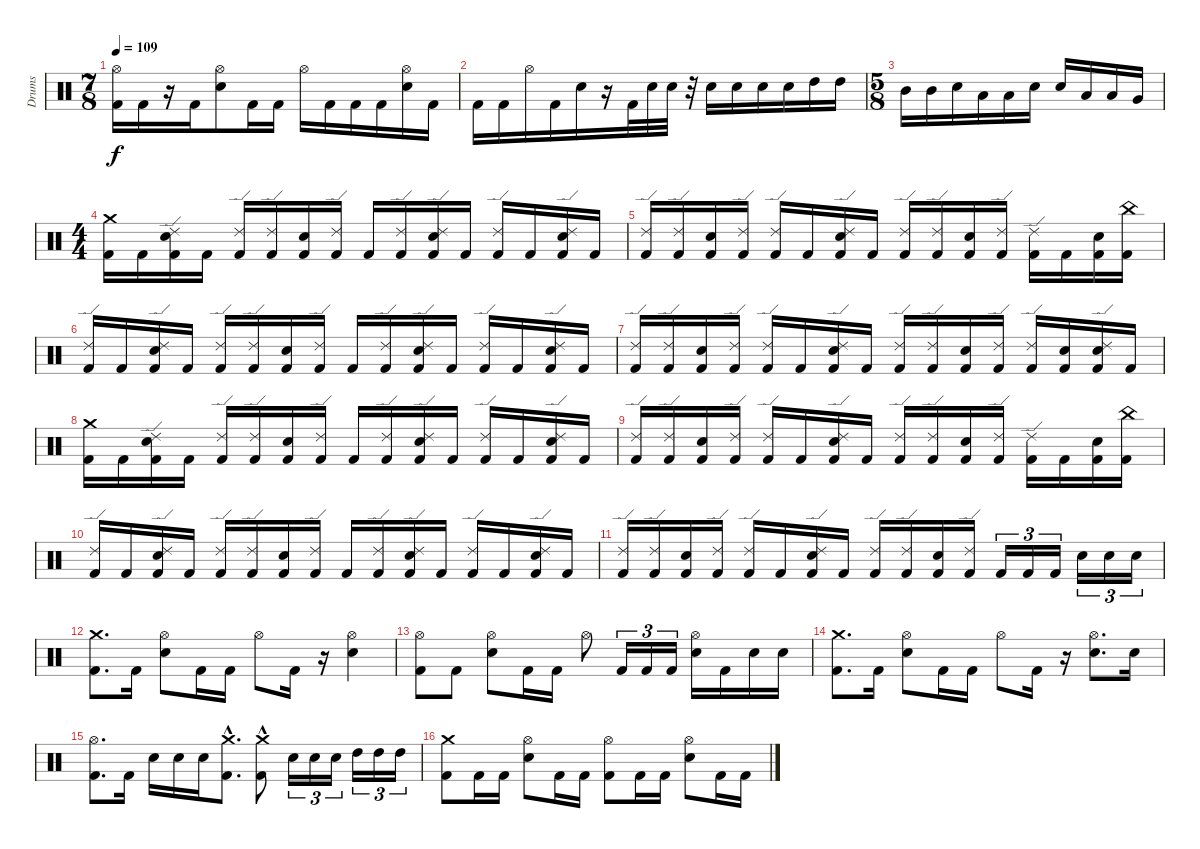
\track ("Drums" "Drums") {instrument percussion}
\staff {score}
\articulation defaults
\ts (7 8)
\tempo 109
\clef neutral
\ks c
("Hi-Hat (open)" "Kick (hit) 2").16{dy f} "Kick (hit) 2".16 r.16 "Kick (hit) 2".16 ("Hi-Hat (open)" "Electric Snare (hit)").8 "Kick (hit) 2".16 "Kick (hit) 2".16 "Hi-Hat (open)".16 "Kick (hit) 2".16 "Kick (hit) 2".16 "Kick (hit) 2".16 ("Hi-Hat (open)" "Electric Snare (hit)").16 "Kick (hit) 2".16 |
"Kick (hit) 2".16 "Kick (hit) 2".16 "Hi-Hat (open)".16 "Kick (hit) 2".16 "Electric Snare (hit)".16 r.16 "Kick (hit) 2".32 "Electric Snare (hit)".32 "Electric Snare (hit)".32 r.32 "Electric Snare (hit)".16 "Electric Snare (hit)".16 "Electric Snare (hit)".16 "Electric Snare (hit)".16 "High Tom (hit)".16 "High Tom (hit)".16 |
\ts (5 8)
"Mid Tom (hit)".16 "Mid Tom (hit)".16 "Electric Snare (hit)".16 "Low Tom (hit)".16 "Low Tom (hit)".16 "Electric Snare (hit)".16 "Electric Snare (hit)".16 "Low Tom (hit)".16 "Low Tom (hit)".16 "Very Low Tom (hit)".16 |
\ts (4 4)
("Crash medium (hit)" "Kick (hit) 2").16 "Kick (hit) 2".16 ("Ride (edge) 2" "Electric Snare (hit)" "Kick (hit) 2").16 "Kick (hit) 2".16 ("Ride (edge) 2" "Kick (hit) 2").16 ("Ride (edge) 2" "Kick (hit) 2").16 ("Electric Snare (hit)" "Kick (hit) 2").16 ("Ride (edge) 2" "Kick (hit) 2").16 "Kick (hit) 2".16 ("Ride (edge) 2" "Kick (hit) 2").16 ("Ride (edge) 2" "Electric Snare (hit)" "Kick (hit) 2").16 "Kick (hit) 2".16 ("Ride (edge) 2" "Kick (hit) 2").16 "Kick (hit) 2".16 ("Ride (edge) 2" "Electric Snare (hit)" "Kick (hit) 2").16 "Kick (hit) 2".16 |
("Ride (edge) 2" "Kick (hit) 2").16 ("Ride (edge) 2" "Kick (hit) 2").16 ("Electric Snare (hit)" "Kick (hit) 2").16 ("Ride (edge) 2" "Kick (hit) 2").16 ("Ride (edge) 2" "Kick (hit) 2").16 "Kick (hit) 2".16 ("Ride (edge) 2" "Electric Snare (hit)" "Kick (hit) 2").16 "Kick (hit) 2".16 ("Ride (edge) 2" "Kick (hit) 2").16 ("Ride (edge) 2" "Kick (hit) 2").16 ("Electric Snare (hit)" "Kick (hit) 2").16 ("Ride (edge) 2" "Kick (hit) 2").16 ("Ride (edge) 2" "Kick (hit) 2").16 "Kick (hit) 2".16 ("Electric Snare (hit)" "Kick (hit) 2").16 ("China (hit)" "Kick (hit) 2").16 |
("Ride (edge) 2" "Kick (hit) 2").16 "Kick (hit) 2".16 ("Ride (edge) 2" "Electric Snare (hit)" "Kick (hit) 2").16 "Kick (hit) 2".16 ("Ride (edge) 2" "Kick (hit) 2").16 ("Ride (edge) 2" "Kick (hit) 2").16 ("Electric Snare (hit)" "Kick (hit) 2").16 ("Ride (edge) 2" "Kick (hit) 2").16 "Kick (hit) 2".16 ("Ride (edge) 2" "Kick (hit) 2").16 ("Ride (edge) 2" "Electric Snare (hit)" "Kick (hit) 2").16 "Kick (hit) 2".16 ("Ride (edge) 2" "Kick (hit) 2").16 "Kick (hit) 2".16 ("Ride (edge) 2" "Electric Snare (hit)" "Kick (hit) 2").16 "Kick (hit) 2".16 |
("Ride (edge) 2" "Kick (hit) 2").16 ("Ride (edge) 2" "Kick (hit) 2").16 ("Electric Snare (hit)" "Kick (hit) 2").16 ("Ride (edge) 2" "Kick (hit) 2").16 ("Ride (edge) 2" "Kick (hit) 2").16 "Kick (hit) 2".16 ("Ride (edge) 2" "Electric Snare (hit)" "Kick (hit) 2").16 "Kick (hit) 2".16 ("Ride (edge) 2" "Kick (hit) 2").16 ("Ride (edge) 2" "Kick (hit) 2").16 ("Electric Snare (hit)" "Kick (hit) 2").16 ("Ride (edge) 2" "Kick (hit) 2").16 ("Ride (edge) 2" "Kick (hit) 2").16 ("Electric Snare (hit)" "Kick (hit) 2").16 ("Ride (edge) 2" "Electric Snare (hit)" "Kick (hit) 2").16 "Kick (hit) 2".16 |
("Crash medium (hit)" "Kick (hit) 2").16 "Kick (hit) 2".16 ("Ride (edge) 2" "Electric Snare (hit)" "Kick (hit) 2").16 "Kick (hit) 2".16 ("Ride (edge) 2" "Kick (hit) 2").16 ("Ride (edge) 2" "Kick (hit) 2").16 ("Electric Snare (hit)" "Kick (hit) 2").16 ("Ride (edge) 2" "Kick (hit) 2").16 "Kick (hit) 2".16 ("Ride (edge) 2" "Kick (hit) 2").16 ("Ride (edge) 2" "Electric Snare (hit)" "Kick (hit) 2").16 "Kick (hit) 2".16 ("Ride (edge) 2" "Kick (hit) 2").16 "Kick (hit) 2".16 ("Ride (edge) 2" "Electric Snare (hit)" "Kick (hit) 2").16 "Kick (hit) 2".16 |
("Ride (edge) 2" "Kick (hit) 2").16 ("Ride (edge) 2" "Kick (hit) 2").16 ("Electric Snare (hit)" "Kick (hit) 2").16 ("Ride (edge) 2" "Kick (hit) 2").16 ("Ride (edge) 2" "Kick (hit) 2").16 "Kick (hit) 2".16 ("Ride (edge) 2" "Electric Snare (hit)" "Kick (hit) 2").16 "Kick (hit) 2".16 ("Ride (edge) 2" "Kick (hit) 2").16 ("Ride (edge) 2" "Kick (hit) 2").16 ("Electric Snare (hit)" "Kick (hit) 2").16 ("Ride (edge) 2" "Kick (hit) 2").16 ("Ride (edge) 2" "Kick (hit) 2").16 "Kick (hit) 2".16 ("Electric Snare (hit)" "Kick (hit) 2").16 ("China (hit)" "Kick (hit) 2").16 |
("Ride (edge) 2" "Kick (hit) 2").16 "Kick (hit) 2".16 ("Ride (edge) 2" "Electric Snare (hit)" "Kick (hit) 2").16 "Kick (hit) 2".16 ("Ride (edge) 2" "Kick (hit) 2").16 ("Ride (edge) 2" "Kick (hit) 2").16 ("Electric Snare (hit)" "Kick (hit) 2").16 ("Ride (edge) 2" "Kick (hit) 2").16 "Kick (hit) 2".16 ("Ride (edge) 2" "Kick (hit) 2").16 ("Ride (edge) 2" "Electric Snare (hit)" "Kick (hit) 2").16 "Kick (hit) 2".16 ("Ride (edge) 2" "Kick (hit) 2").16 "Kick (hit) 2".16 ("Ride (edge) 2" "Electric Snare (hit)" "Kick (hit) 2").16 "Kick (hit) 2".16 |
("Ride (edge) 2" "Kick (hit) 2").16 ("Ride (edge) 2" "Kick (hit) 2").16 ("Electric Snare (hit)" "Kick (hit) 2").16 ("Ride (edge) 2" "Kick (hit) 2").16 ("Ride (edge) 2" "Kick (hit) 2").16 "Kick (hit) 2".16 ("Ride (edge) 2" "Electric Snare (hit)" "Kick (hit) 2").16 "Kick (hit) 2".16 ("Ride (edge) 2" "Kick (hit) 2").16 ("Ride (edge) 2" "Kick (hit) 2").16 ("Electric Snare (hit)" "Kick (hit) 2").16 ("Ride (edge) 2" "Kick (hit) 2").16 "Kick (hit) 2".16{tu (3 2)} "Kick (hit) 2".16{tu (3 2)} "Kick (hit) 2".16{tu (3 2)} "Electric Snare (hit)".16{tu (3 2)} "Electric Snare (hit)".16{tu (3 2)} "Electric Snare (hit)".16{tu (3 2)} |
("Kick (hit) 2" "Crash medium (hit)").8{d} "Kick (hit) 2".16 ("Electric Snare (hit)" "Hi-Hat (open)").8 "Kick (hit) 2".16 "Kick (hit) 2".16 "Hi-Hat (open)".8 "Kick (hit) 2".16 r.16 ("Electric Snare (hit)" "Hi-Hat (open)").4 |
("Kick (hit) 2" "Hi-Hat (open)").8 "Kick (hit) 2".8 ("Electric Snare (hit)" "Hi-Hat (open)").8 "Kick (hit) 2".16 "Kick (hit) 2".16 "Hi-Hat (open)".8 "Kick (hit) 2".16{tu (3 2)} "Kick (hit) 2".16{tu (3 2)} "Kick (hit) 2".16{tu (3 2)} ("Electric Snare (hit)" "Hi-Hat (open)").16 "Kick (hit) 2".16 "Electric Snare (hit)".16 "Electric Snare (hit)".16 |
("Kick (hit) 2" "Crash medium (hit)").8{d} "Kick (hit) 2".16 ("Electric Snare (hit)" "Hi-Hat (open)").8 "Kick (hit) 2".16 "Kick (hit) 2".16 "Hi-Hat (open)".8 "Kick (hit) 2".16 r.16 ("Electric Snare (hit)" "Hi-Hat (open)").8{d} "Electric Snare (hit)".16 |
("Hi-Hat (open)" "Kick (hit) 2").8{d} "Kick (hit) 2".16 "Electric Snare (hit)".16 "Electric Snare (hit)".16 "Electric Snare (hit)".16 ("Crash medium (hit)"{hac} "Kick (hit) 2"{hac}).8{d} ("Kick (hit) 2" "Crash medium (hit)"{hac}).8 "Electric Snare (hit)".16{tu (3 2)} "Electric Snare (hit)".16{tu (3 2)} "Electric Snare (hit)".16{tu (3 2)} "High Tom (hit)".16{tu (3 2)} "High Tom (hit)".16{tu (3 2)} "High Tom (hit)".16{tu (3 2)} |
("Kick (hit) 2" "Crash medium (hit)").8 "Kick (hit) 2".16 "Kick (hit) 2".16 ("Electric Snare (hit)" "Hi-Hat (open)").8 "Kick (hit) 2".16 "Kick (hit) 2".16 ("Kick (hit) 2" "Hi-Hat (open)").8 "Kick (hit) 2".16 "Kick (hit) 2".16 ("Electric Snare (hit)" "Hi-Hat (open)").8 "Kick (hit) 2".16 "Kick (hit) 2".16
